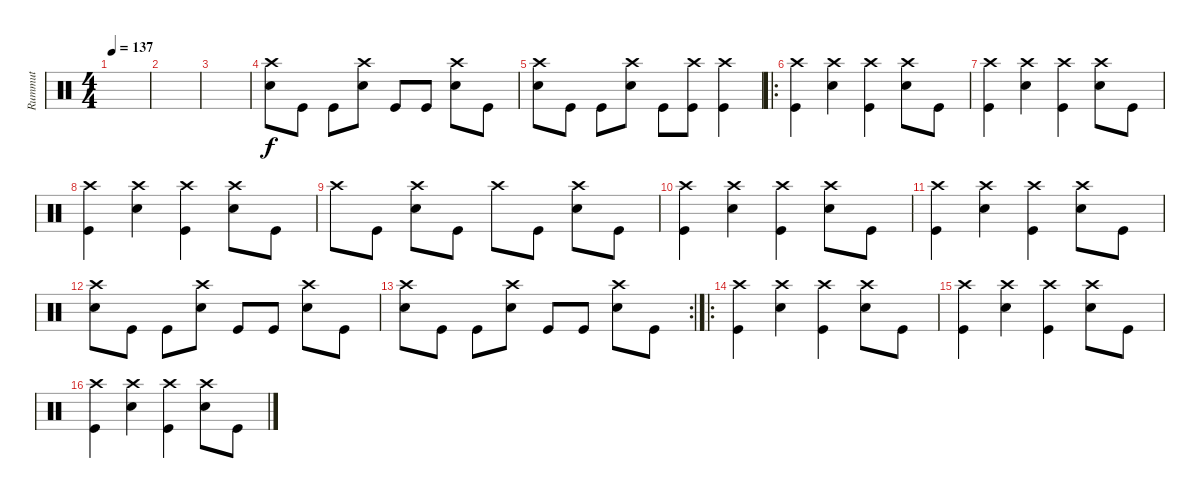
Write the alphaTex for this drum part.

\track ("Rummut" "Rummut") {instrument percussion}
\staff {score}
\articulation defaults
\ts (4 4)
\tempo 137
\clef neutral
\ks c
|
|
|
("Snare (hit) 2" "Crash high (hit)").8 "Kick (hit)".8 "Kick (hit)".8 ("Snare (hit) 2" "Crash high (hit)").8 "Kick (hit)".8 "Kick (hit)".8 ("Snare (hit) 2" "Crash high (hit)").8 "Kick (hit)".8 |
("Snare (hit) 2" "Crash high (hit)").8 "Kick (hit)".8 "Kick (hit)".8 ("Snare (hit) 2" "Crash high (hit)").8 "Kick (hit)".8 ("Kick (hit)" "Crash high (hit)").8 ("Kick (hit)" "Crash high (hit)").4 |
\ro
("Kick (hit)" "Crash high (hit)").4 ("Snare (hit) 2" "Crash high (hit)").4 ("Kick (hit)" "Crash high (hit)").4 ("Snare (hit) 2" "Crash high (hit)").8 "Kick (hit)".8 |
("Kick (hit)" "Crash high (hit)").4 ("Snare (hit) 2" "Crash high (hit)").4 ("Kick (hit)" "Crash high (hit)").4 ("Snare (hit) 2" "Crash high (hit)").8 "Kick (hit)".8 |
("Kick (hit)" "Crash high (hit)").4 ("Snare (hit) 2" "Crash high (hit)").4 ("Kick (hit)" "Crash high (hit)").4 ("Snare (hit) 2" "Crash high (hit)").8 "Kick (hit)".8 |
"Crash high (hit)".8 "Kick (hit)".8 ("Snare (hit) 2" "Crash high (hit)").8 "Kick (hit)".8 "Crash high (hit)".8 "Kick (hit)".8 ("Snare (hit) 2" "Crash high (hit)").8 "Kick (hit)".8 |
("Kick (hit)" "Crash high (hit)").4 ("Snare (hit) 2" "Crash high (hit)").4 ("Kick (hit)" "Crash high (hit)").4 ("Snare (hit) 2" "Crash high (hit)").8 "Kick (hit)".8 |
("Kick (hit)" "Crash high (hit)").4 ("Snare (hit) 2" "Crash high (hit)").4 ("Kick (hit)" "Crash high (hit)").4 ("Snare (hit) 2" "Crash high (hit)").8 "Kick (hit)".8 |
("Snare (hit) 2" "Crash high (hit)").8 "Kick (hit)".8 "Kick (hit)".8 ("Snare (hit) 2" "Crash high (hit)").8 "Kick (hit)".8 "Kick (hit)".8 ("Snare (hit) 2" "Crash high (hit)").8 "Kick (hit)".8 |
\rc 2
("Snare (hit) 2" "Crash high (hit)").8 "Kick (hit)".8 "Kick (hit)".8 ("Snare (hit) 2" "Crash high (hit)").8 "Kick (hit)".8 "Kick (hit)".8 ("Snare (hit) 2" "Crash high (hit)").8 "Kick (hit)".8 |
\ro
("Kick (hit)" "Crash high (hit)").4 ("Snare (hit) 2" "Crash high (hit)").4 ("Kick (hit)" "Crash high (hit)").4 ("Snare (hit) 2" "Crash high (hit)").8 "Kick (hit)".8 |
("Kick (hit)" "Crash high (hit)").4 ("Snare (hit) 2" "Crash high (hit)").4 ("Kick (hit)" "Crash high (hit)").4 ("Snare (hit) 2" "Crash high (hit)").8 "Kick (hit)".8 |
("Kick (hit)" "Crash high (hit)").4 ("Snare (hit) 2" "Crash high (hit)").4 ("Kick (hit)" "Crash high (hit)").4 ("Snare (hit) 2" "Crash high (hit)").8 "Kick (hit)".8
